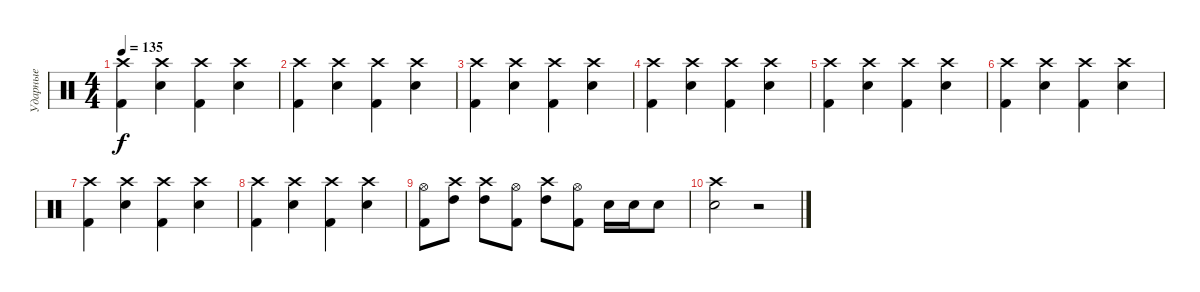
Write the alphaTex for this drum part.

\track ("Ударные" "Ударные") {instrument percussion}
\staff {score}
\articulation defaults
\ts (4 4)
\tempo 135
\clef neutral
\ks c
("Crash high (hit)" "Kick (hit) 2").4{dy f} ("Crash high (hit)" "Snare (hit) 2").4 ("Crash high (hit)" "Kick (hit) 2").4 ("Crash high (hit)" "Snare (hit) 2").4 |
("Crash high (hit)" "Kick (hit) 2").4 ("Crash high (hit)" "Snare (hit) 2").4 ("Crash high (hit)" "Kick (hit) 2").4 ("Crash high (hit)" "Snare (hit) 2").4 |
("Crash high (hit)" "Kick (hit) 2").4 ("Crash high (hit)" "Snare (hit) 2").4 ("Crash high (hit)" "Kick (hit) 2").4 ("Crash high (hit)" "Snare (hit) 2").4 |
("Crash high (hit)" "Kick (hit) 2").4 ("Crash high (hit)" "Snare (hit) 2").4 ("Crash high (hit)" "Kick (hit) 2").4 ("Crash high (hit)" "Snare (hit) 2").4 |
("Crash high (hit)" "Kick (hit) 2").4 ("Crash high (hit)" "Snare (hit) 2").4 ("Crash high (hit)" "Kick (hit) 2").4 ("Crash high (hit)" "Snare (hit) 2").4 |
("Crash high (hit)" "Kick (hit) 2").4 ("Crash high (hit)" "Snare (hit) 2").4 ("Crash high (hit)" "Kick (hit) 2").4 ("Crash high (hit)" "Snare (hit) 2").4 |
("Crash high (hit)" "Kick (hit) 2").4 ("Crash high (hit)" "Snare (hit) 2").4 ("Crash high (hit)" "Kick (hit) 2").4 ("Crash high (hit)" "Snare (hit) 2").4 |
("Crash high (hit)" "Kick (hit) 2").4 ("Crash high (hit)" "Snare (hit) 2").4 ("Crash high (hit)" "Kick (hit) 2").4 ("Crash high (hit)" "Snare (hit) 2").4 |
("Hi-Hat (open)" "Kick (hit) 2").8 ("Crash high (hit)" "High Tom (hit)").8 ("Crash high (hit)" "High Tom (hit)").8 ("Hi-Hat (open)" "Kick (hit) 2").8 ("Crash high (hit)" "High Tom (hit)").8 ("Hi-Hat (open)" "Kick (hit) 2").8 "Snare (hit) 2".16 "Snare (hit) 2".16 "Snare (hit) 2".8 |
("Crash high (hit)" "Snare (hit) 2").2 r.2
